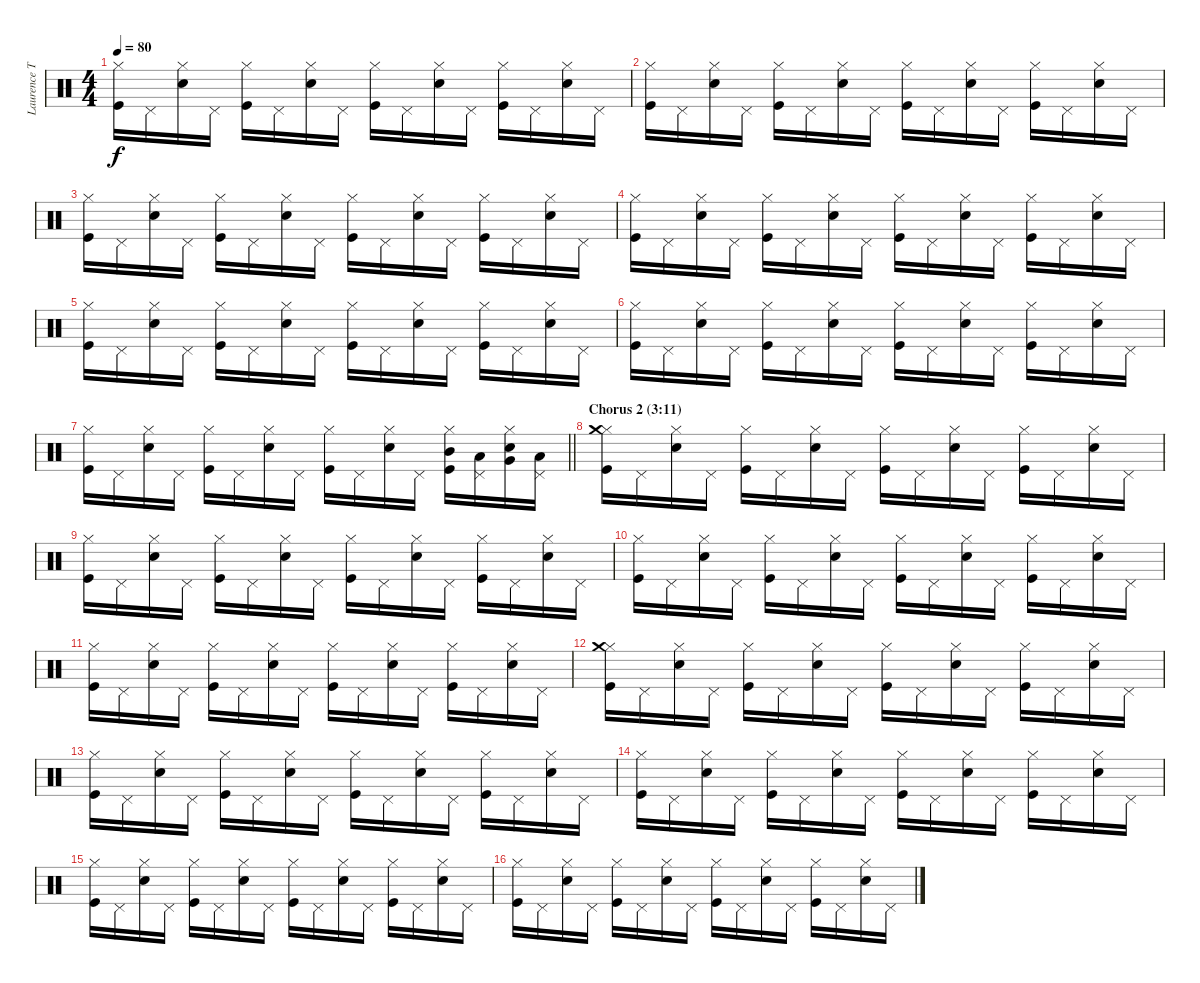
\track ("Laurence Tolhurst (drums)" "Laurence T") {instrument percussion}
\staff {score}
\articulation defaults
\ts (4 4)
\tempo 80
\clef neutral
\ks c
("Kick (hit)" "Hi-Hat (closed)").16{dy f} "Pedal Hi-Hat (hit)".16 ("Snare (hit) 2" "Hi-Hat (closed)").16 "Pedal Hi-Hat (hit)".16 ("Kick (hit)" "Hi-Hat (closed)").16 "Pedal Hi-Hat (hit)".16 ("Snare (hit) 2" "Hi-Hat (closed)").16 "Pedal Hi-Hat (hit)".16 ("Kick (hit)" "Hi-Hat (closed)").16 "Pedal Hi-Hat (hit)".16 ("Snare (hit) 2" "Hi-Hat (closed)").16 "Pedal Hi-Hat (hit)".16 ("Kick (hit)" "Hi-Hat (closed)").16 "Pedal Hi-Hat (hit)".16 ("Snare (hit) 2" "Hi-Hat (closed)").16 "Pedal Hi-Hat (hit)".16 |
("Kick (hit)" "Hi-Hat (closed)").16 "Pedal Hi-Hat (hit)".16 ("Snare (hit) 2" "Hi-Hat (closed)").16 "Pedal Hi-Hat (hit)".16 ("Kick (hit)" "Hi-Hat (closed)").16 "Pedal Hi-Hat (hit)".16 ("Snare (hit) 2" "Hi-Hat (closed)").16 "Pedal Hi-Hat (hit)".16 ("Kick (hit)" "Hi-Hat (closed)").16 "Pedal Hi-Hat (hit)".16 ("Snare (hit) 2" "Hi-Hat (closed)").16 "Pedal Hi-Hat (hit)".16 ("Kick (hit)" "Hi-Hat (closed)").16 "Pedal Hi-Hat (hit)".16 ("Snare (hit) 2" "Hi-Hat (closed)").16 "Pedal Hi-Hat (hit)".16 |
("Kick (hit)" "Hi-Hat (closed)").16 "Pedal Hi-Hat (hit)".16 ("Snare (hit) 2" "Hi-Hat (closed)").16 "Pedal Hi-Hat (hit)".16 ("Kick (hit)" "Hi-Hat (closed)").16 "Pedal Hi-Hat (hit)".16 ("Snare (hit) 2" "Hi-Hat (closed)").16 "Pedal Hi-Hat (hit)".16 ("Kick (hit)" "Hi-Hat (closed)").16 "Pedal Hi-Hat (hit)".16 ("Snare (hit) 2" "Hi-Hat (closed)").16 "Pedal Hi-Hat (hit)".16 ("Kick (hit)" "Hi-Hat (closed)").16 "Pedal Hi-Hat (hit)".16 ("Snare (hit) 2" "Hi-Hat (closed)").16 "Pedal Hi-Hat (hit)".16 |
("Kick (hit)" "Hi-Hat (closed)").16 "Pedal Hi-Hat (hit)".16 ("Snare (hit) 2" "Hi-Hat (closed)").16 "Pedal Hi-Hat (hit)".16 ("Kick (hit)" "Hi-Hat (closed)").16 "Pedal Hi-Hat (hit)".16 ("Snare (hit) 2" "Hi-Hat (closed)").16 "Pedal Hi-Hat (hit)".16 ("Kick (hit)" "Hi-Hat (closed)").16 "Pedal Hi-Hat (hit)".16 ("Snare (hit) 2" "Hi-Hat (closed)").16 "Pedal Hi-Hat (hit)".16 ("Kick (hit)" "Hi-Hat (closed)").16 "Pedal Hi-Hat (hit)".16 ("Snare (hit) 2" "Hi-Hat (closed)").16 "Pedal Hi-Hat (hit)".16 |
("Kick (hit)" "Hi-Hat (closed)").16 "Pedal Hi-Hat (hit)".16 ("Snare (hit) 2" "Hi-Hat (closed)").16 "Pedal Hi-Hat (hit)".16 ("Kick (hit)" "Hi-Hat (closed)").16 "Pedal Hi-Hat (hit)".16 ("Snare (hit) 2" "Hi-Hat (closed)").16 "Pedal Hi-Hat (hit)".16 ("Kick (hit)" "Hi-Hat (closed)").16 "Pedal Hi-Hat (hit)".16 ("Snare (hit) 2" "Hi-Hat (closed)").16 "Pedal Hi-Hat (hit)".16 ("Kick (hit)" "Hi-Hat (closed)").16 "Pedal Hi-Hat (hit)".16 ("Snare (hit) 2" "Hi-Hat (closed)").16 "Pedal Hi-Hat (hit)".16 |
("Kick (hit)" "Hi-Hat (closed)").16 "Pedal Hi-Hat (hit)".16 ("Snare (hit) 2" "Hi-Hat (closed)").16 "Pedal Hi-Hat (hit)".16 ("Kick (hit)" "Hi-Hat (closed)").16 "Pedal Hi-Hat (hit)".16 ("Snare (hit) 2" "Hi-Hat (closed)").16 "Pedal Hi-Hat (hit)".16 ("Kick (hit)" "Hi-Hat (closed)").16 "Pedal Hi-Hat (hit)".16 ("Snare (hit) 2" "Hi-Hat (closed)").16 "Pedal Hi-Hat (hit)".16 ("Kick (hit)" "Hi-Hat (closed)").16 "Pedal Hi-Hat (hit)".16 ("Snare (hit) 2" "Hi-Hat (closed)").16 "Pedal Hi-Hat (hit)".16 |
\barLineRight lightlight
("Kick (hit)" "Hi-Hat (closed)").16 "Pedal Hi-Hat (hit)".16 ("Snare (hit) 2" "Hi-Hat (closed)").16 "Pedal Hi-Hat (hit)".16 ("Kick (hit)" "Hi-Hat (closed)").16 "Pedal Hi-Hat (hit)".16 ("Snare (hit) 2" "Hi-Hat (closed)").16 "Pedal Hi-Hat (hit)".16 ("Kick (hit)" "Hi-Hat (closed)").16 "Pedal Hi-Hat (hit)".16 ("Snare (hit) 2" "Hi-Hat (closed)").16 "Pedal Hi-Hat (hit)".16 ("Kick (hit)" "Hi-Hat (closed)" "Mid Tom (hit)").16 ("Pedal Hi-Hat (hit)" "Low Tom (hit)").16 ("Snare (hit) 2" "Hi-Hat (closed)" "Very Low Tom (hit)").16 ("Pedal Hi-Hat (hit)" "Low Floor Tom (hit)").16 |
\section ("" "Chorus 2 (3:11)")
("Kick (hit)" "Hi-Hat (closed)" "Crash medium (hit)").16 "Pedal Hi-Hat (hit)".16 ("Snare (hit) 2" "Hi-Hat (closed)").16 "Pedal Hi-Hat (hit)".16 ("Kick (hit)" "Hi-Hat (closed)").16 "Pedal Hi-Hat (hit)".16 ("Snare (hit) 2" "Hi-Hat (closed)").16 "Pedal Hi-Hat (hit)".16 ("Kick (hit)" "Hi-Hat (closed)").16 "Pedal Hi-Hat (hit)".16 ("Snare (hit) 2" "Hi-Hat (closed)").16 "Pedal Hi-Hat (hit)".16 ("Kick (hit)" "Hi-Hat (closed)").16 "Pedal Hi-Hat (hit)".16 ("Snare (hit) 2" "Hi-Hat (closed)").16 "Pedal Hi-Hat (hit)".16 |
("Kick (hit)" "Hi-Hat (closed)").16 "Pedal Hi-Hat (hit)".16 ("Snare (hit) 2" "Hi-Hat (closed)").16 "Pedal Hi-Hat (hit)".16 ("Kick (hit)" "Hi-Hat (closed)").16 "Pedal Hi-Hat (hit)".16 ("Snare (hit) 2" "Hi-Hat (closed)").16 "Pedal Hi-Hat (hit)".16 ("Kick (hit)" "Hi-Hat (closed)").16 "Pedal Hi-Hat (hit)".16 ("Snare (hit) 2" "Hi-Hat (closed)").16 "Pedal Hi-Hat (hit)".16 ("Kick (hit)" "Hi-Hat (closed)").16 "Pedal Hi-Hat (hit)".16 ("Snare (hit) 2" "Hi-Hat (closed)").16 "Pedal Hi-Hat (hit)".16 |
("Kick (hit)" "Hi-Hat (closed)").16 "Pedal Hi-Hat (hit)".16 ("Snare (hit) 2" "Hi-Hat (closed)").16 "Pedal Hi-Hat (hit)".16 ("Kick (hit)" "Hi-Hat (closed)").16 "Pedal Hi-Hat (hit)".16 ("Snare (hit) 2" "Hi-Hat (closed)").16 "Pedal Hi-Hat (hit)".16 ("Kick (hit)" "Hi-Hat (closed)").16 "Pedal Hi-Hat (hit)".16 ("Snare (hit) 2" "Hi-Hat (closed)").16 "Pedal Hi-Hat (hit)".16 ("Kick (hit)" "Hi-Hat (closed)").16 "Pedal Hi-Hat (hit)".16 ("Snare (hit) 2" "Hi-Hat (closed)").16 "Pedal Hi-Hat (hit)".16 |
("Kick (hit)" "Hi-Hat (closed)").16 "Pedal Hi-Hat (hit)".16 ("Snare (hit) 2" "Hi-Hat (closed)").16 "Pedal Hi-Hat (hit)".16 ("Kick (hit)" "Hi-Hat (closed)").16 "Pedal Hi-Hat (hit)".16 ("Snare (hit) 2" "Hi-Hat (closed)").16 "Pedal Hi-Hat (hit)".16 ("Kick (hit)" "Hi-Hat (closed)").16 "Pedal Hi-Hat (hit)".16 ("Snare (hit) 2" "Hi-Hat (closed)").16 "Pedal Hi-Hat (hit)".16 ("Kick (hit)" "Hi-Hat (closed)").16 "Pedal Hi-Hat (hit)".16 ("Snare (hit) 2" "Hi-Hat (closed)").16 "Pedal Hi-Hat (hit)".16 |
("Kick (hit)" "Hi-Hat (closed)" "Crash medium (hit)").16 "Pedal Hi-Hat (hit)".16 ("Snare (hit) 2" "Hi-Hat (closed)").16 "Pedal Hi-Hat (hit)".16 ("Kick (hit)" "Hi-Hat (closed)").16 "Pedal Hi-Hat (hit)".16 ("Snare (hit) 2" "Hi-Hat (closed)").16 "Pedal Hi-Hat (hit)".16 ("Kick (hit)" "Hi-Hat (closed)").16 "Pedal Hi-Hat (hit)".16 ("Snare (hit) 2" "Hi-Hat (closed)").16 "Pedal Hi-Hat (hit)".16 ("Kick (hit)" "Hi-Hat (closed)").16 "Pedal Hi-Hat (hit)".16 ("Snare (hit) 2" "Hi-Hat (closed)").16 "Pedal Hi-Hat (hit)".16 |
("Kick (hit)" "Hi-Hat (closed)").16 "Pedal Hi-Hat (hit)".16 ("Snare (hit) 2" "Hi-Hat (closed)").16 "Pedal Hi-Hat (hit)".16 ("Kick (hit)" "Hi-Hat (closed)").16 "Pedal Hi-Hat (hit)".16 ("Snare (hit) 2" "Hi-Hat (closed)").16 "Pedal Hi-Hat (hit)".16 ("Kick (hit)" "Hi-Hat (closed)").16 "Pedal Hi-Hat (hit)".16 ("Snare (hit) 2" "Hi-Hat (closed)").16 "Pedal Hi-Hat (hit)".16 ("Kick (hit)" "Hi-Hat (closed)").16 "Pedal Hi-Hat (hit)".16 ("Snare (hit) 2" "Hi-Hat (closed)").16 "Pedal Hi-Hat (hit)".16 |
("Kick (hit)" "Hi-Hat (closed)").16 "Pedal Hi-Hat (hit)".16 ("Snare (hit) 2" "Hi-Hat (closed)").16 "Pedal Hi-Hat (hit)".16 ("Kick (hit)" "Hi-Hat (closed)").16 "Pedal Hi-Hat (hit)".16 ("Snare (hit) 2" "Hi-Hat (closed)").16 "Pedal Hi-Hat (hit)".16 ("Kick (hit)" "Hi-Hat (closed)").16 "Pedal Hi-Hat (hit)".16 ("Snare (hit) 2" "Hi-Hat (closed)").16 "Pedal Hi-Hat (hit)".16 ("Kick (hit)" "Hi-Hat (closed)").16 "Pedal Hi-Hat (hit)".16 ("Snare (hit) 2" "Hi-Hat (closed)").16 "Pedal Hi-Hat (hit)".16 |
("Kick (hit)" "Hi-Hat (closed)").16 "Pedal Hi-Hat (hit)".16 ("Snare (hit) 2" "Hi-Hat (closed)").16 "Pedal Hi-Hat (hit)".16 ("Kick (hit)" "Hi-Hat (closed)").16 "Pedal Hi-Hat (hit)".16 ("Snare (hit) 2" "Hi-Hat (closed)").16 "Pedal Hi-Hat (hit)".16 ("Kick (hit)" "Hi-Hat (closed)").16 "Pedal Hi-Hat (hit)".16 ("Snare (hit) 2" "Hi-Hat (closed)").16 "Pedal Hi-Hat (hit)".16 ("Kick (hit)" "Hi-Hat (closed)").16 "Pedal Hi-Hat (hit)".16 ("Snare (hit) 2" "Hi-Hat (closed)").16 "Pedal Hi-Hat (hit)".16 |
("Kick (hit)" "Hi-Hat (closed)").16 "Pedal Hi-Hat (hit)".16 ("Snare (hit) 2" "Hi-Hat (closed)").16 "Pedal Hi-Hat (hit)".16 ("Kick (hit)" "Hi-Hat (closed)").16 "Pedal Hi-Hat (hit)".16 ("Snare (hit) 2" "Hi-Hat (closed)").16 "Pedal Hi-Hat (hit)".16 ("Kick (hit)" "Hi-Hat (closed)").16 "Pedal Hi-Hat (hit)".16 ("Snare (hit) 2" "Hi-Hat (closed)").16 "Pedal Hi-Hat (hit)".16 ("Kick (hit)" "Hi-Hat (closed)").16 "Pedal Hi-Hat (hit)".16 ("Snare (hit) 2" "Hi-Hat (closed)").16 "Pedal Hi-Hat (hit)".16
